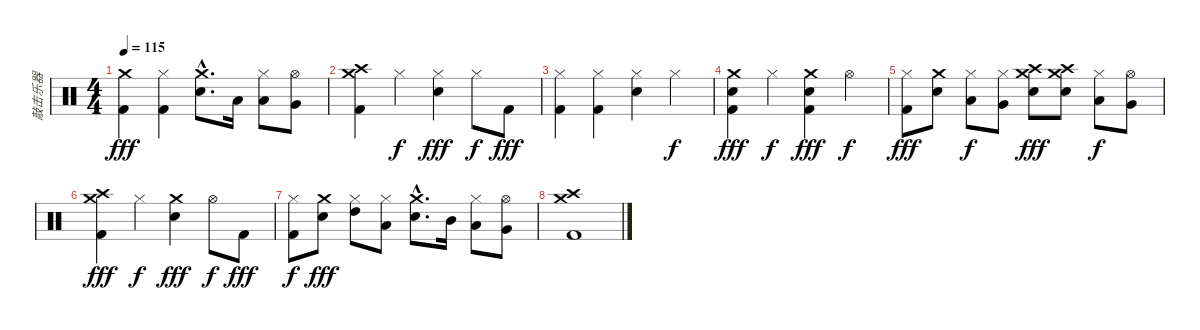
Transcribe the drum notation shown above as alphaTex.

\track ("敲击乐器" "敲击乐器") {instrument percussion}
\staff {score}
\articulation defaults
\ts (4 4)
\tempo 115
\clef neutral
\ks c
("Crash medium (hit)" "Kick (hit) 2").4{dy fff} ("Hi-Hat (closed)" "Kick (hit) 2").4 ("Crash medium (hit)"{hac} "Snare (hit) 2"{hac}).8{d} "Low Tom (hit)".16 ("Hi-Hat (closed)" "Low Tom (hit)").8 ("Hi-Hat (open)" "Very Low Tom (hit)").8 |
("Crash medium (hit)" "Crash high (hit)" "Kick (hit) 2").4 "Hi-Hat (closed)".4{dy f} ("Hi-Hat (closed)" "Snare (hit) 2").4{dy fff} "Hi-Hat (closed)".8{dy f} "Kick (hit) 2".8{dy fff} |
("Hi-Hat (closed)" "Kick (hit) 2").4 ("Hi-Hat (closed)" "Kick (hit) 2").4 ("Hi-Hat (closed)" "Snare (hit) 2").4 "Hi-Hat (closed)".4{dy f} |
("Crash medium (hit)" "Snare (hit) 2" "Kick (hit) 2").4{dy fff} "Hi-Hat (closed)".4{dy f} ("Crash medium (hit)" "Snare (hit) 2" "Kick (hit) 2").4{dy fff} "Hi-Hat (open)".4{dy f} |
("Hi-Hat (closed)" "Kick (hit) 2").8{dy fff} ("Crash medium (hit)" "Snare (hit) 2").8 ("Hi-Hat (closed)" "Low Tom (hit)").8{dy f} ("Hi-Hat (closed)" "Very Low Tom (hit)").8 ("Crash high (hit)" "Crash medium (hit)" "Snare (hit) 2").8{dy fff} ("Crash high (hit)" "Crash medium (hit)" "Snare (hit) 2").8 ("Hi-Hat (closed)" "Low Tom (hit)").8{dy f} ("Hi-Hat (open)" "Very Low Tom (hit)").8 |
("Crash medium (hit)" "Crash high (hit)" "Kick (hit) 2").4{dy fff} "Hi-Hat (closed)".4{dy f} ("Crash medium (hit)" "Snare (hit) 2").4{dy fff} "Hi-Hat (open)".8{dy f} "Kick (hit) 2".8{dy fff} |
("Hi-Hat (closed)" "Kick (hit) 2").8{dy f} ("Crash medium (hit)" "Snare (hit) 2").8{dy fff} ("Hi-Hat (closed)" "High Tom (hit)").8 ("Hi-Hat (closed)" "Low Tom (hit)").8 ("Crash medium (hit)"{hac} "Snare (hit) 2"{hac}).8{d} "Mid Tom (hit)".16 ("Hi-Hat (closed)" "Low Tom (hit)").8 ("Hi-Hat (open)" "Very Low Tom (hit)").8 |
("Crash medium (hit)" "Crash high (hit)" "Kick (hit) 2").1
